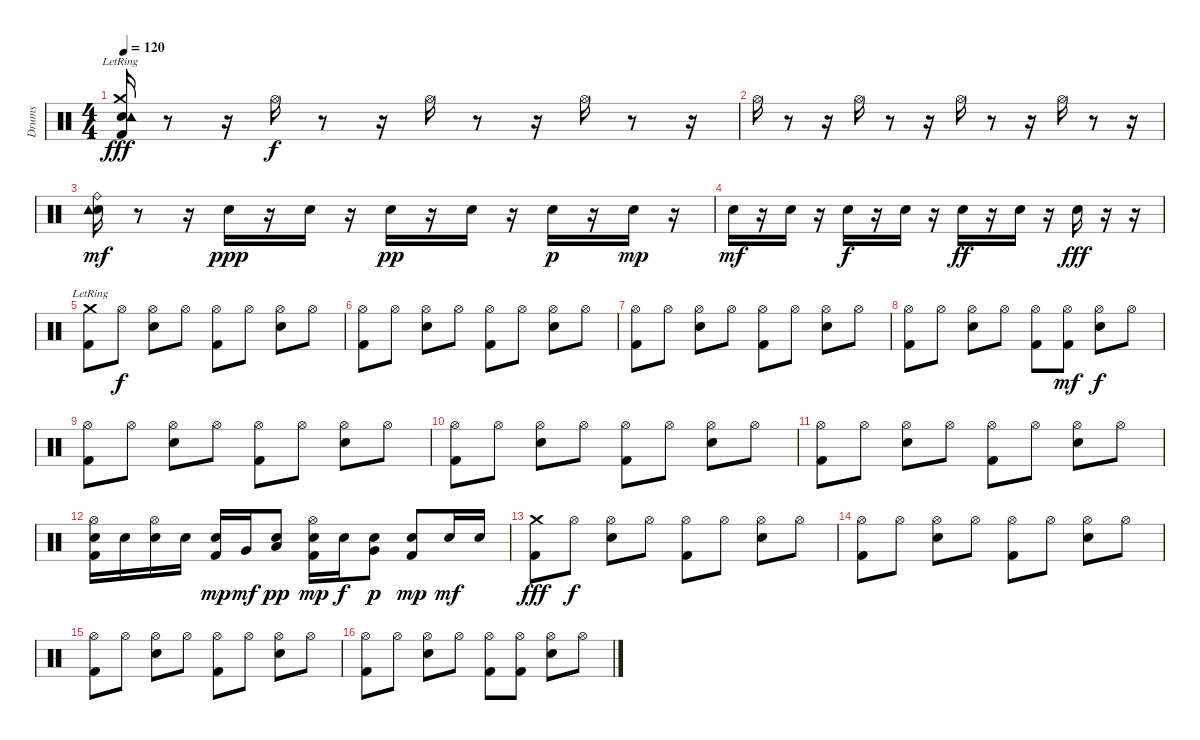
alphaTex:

\track ("Drums" "Drums") {instrument percussion}
\staff {score}
\articulation defaults
\ts (4 4)
\tempo 120
\clef neutral
\ks c
("Electric Snare (hit)" "Crash medium (hit)"{lr} "Tambourine (hit)"{lr} "Kick (hit) 2").16{dy fff} r.8 r.16 "Hi-Hat (open)".16{dy f} r.8 r.16 "Hi-Hat (open)".16 r.8 r.16 "Hi-Hat (open)".16 r.8 r.16 |
"Hi-Hat (open)".16 r.8 r.16 "Hi-Hat (open)".16 r.8 r.16 "Hi-Hat (open)".16 r.8 r.16 "Hi-Hat (open)".16 r.8 r.16 |
("Electric Snare (hit)" "Tambourine (hit)" "Ride (bell)").16{dy mf} r.8 r.16 "Electric Snare (hit)".16{dy ppp} r.16 "Electric Snare (hit)".16 r.16 "Electric Snare (hit)".16{dy pp} r.16 "Electric Snare (hit)".16 r.16 "Electric Snare (hit)".16{dy p} r.16 "Electric Snare (hit)".16{dy mp} r.16 |
"Electric Snare (hit)".16{dy mf} r.16 "Electric Snare (hit)".16 r.16 "Electric Snare (hit)".16{dy f} r.16 "Electric Snare (hit)".16 r.16 "Electric Snare (hit)".16{dy ff} r.16 "Electric Snare (hit)".16 r.16 "Electric Snare (hit)".16{dy fff} r.16 r.16 |
("Crash medium (hit)"{lr} "Kick (hit) 2").8 "Hi-Hat (open)".8{dy f} ("Hi-Hat (open)" "Electric Snare (hit)").8 "Hi-Hat (open)".8 ("Hi-Hat (open)" "Kick (hit) 2").8 "Hi-Hat (open)".8 ("Hi-Hat (open)" "Electric Snare (hit)").8 "Hi-Hat (open)".8 |
("Hi-Hat (open)" "Kick (hit) 2").8 "Hi-Hat (open)".8 ("Hi-Hat (open)" "Electric Snare (hit)").8 "Hi-Hat (open)".8 ("Hi-Hat (open)" "Kick (hit) 2").8 "Hi-Hat (open)".8 ("Hi-Hat (open)" "Electric Snare (hit)").8 "Hi-Hat (open)".8 |
("Hi-Hat (open)" "Kick (hit) 2").8 "Hi-Hat (open)".8 ("Hi-Hat (open)" "Electric Snare (hit)").8 "Hi-Hat (open)".8 ("Hi-Hat (open)" "Kick (hit) 2").8 "Hi-Hat (open)".8 ("Hi-Hat (open)" "Electric Snare (hit)").8 "Hi-Hat (open)".8 |
("Hi-Hat (open)" "Kick (hit) 2").8 "Hi-Hat (open)".8 ("Hi-Hat (open)" "Electric Snare (hit)").8 "Hi-Hat (open)".8 ("Hi-Hat (open)" "Kick (hit) 2").8 ("Hi-Hat (open)" "Kick (hit) 2").8{dy mf} ("Hi-Hat (open)" "Electric Snare (hit)").8{dy f} "Hi-Hat (open)".8 |
("Hi-Hat (open)" "Kick (hit) 2").8 "Hi-Hat (open)".8 ("Hi-Hat (open)" "Electric Snare (hit)").8 "Hi-Hat (open)".8 ("Hi-Hat (open)" "Kick (hit) 2").8 "Hi-Hat (open)".8 ("Hi-Hat (open)" "Electric Snare (hit)").8 "Hi-Hat (open)".8 |
("Hi-Hat (open)" "Kick (hit) 2").8 "Hi-Hat (open)".8 ("Hi-Hat (open)" "Electric Snare (hit)").8 "Hi-Hat (open)".8 ("Hi-Hat (open)" "Kick (hit) 2").8 "Hi-Hat (open)".8 ("Hi-Hat (open)" "Electric Snare (hit)").8 "Hi-Hat (open)".8 |
("Hi-Hat (open)" "Kick (hit) 2").8 "Hi-Hat (open)".8 ("Hi-Hat (open)" "Electric Snare (hit)").8 "Hi-Hat (open)".8 ("Hi-Hat (open)" "Kick (hit) 2").8 "Hi-Hat (open)".8 ("Hi-Hat (open)" "Electric Snare (hit)").8 "Hi-Hat (open)".8 |
("Electric Snare (hit)" "Hi-Hat (open)" "Kick (hit) 2").16 "Electric Snare (hit)".16 ("Electric Snare (hit)" "Hi-Hat (open)").16 "Electric Snare (hit)".16 ("Electric Snare (hit)" "Kick (hit) 2").16{dy mp} "Very Low Tom (hit)".16{dy mf} ("Low Tom (hit)" "Electric Snare (hit)").8{dy pp} ("Electric Snare (hit)" "Hi-Hat (open)" "Kick (hit) 2").16{dy mp} "Electric Snare (hit)".16{dy f} ("Very Low Tom (hit)" "Electric Snare (hit)").8{dy p} ("Electric Snare (hit)" "Kick (hit) 2").8{dy mp} "Electric Snare (hit)".16{dy mf} "Electric Snare (hit)".16 |
("Crash medium (hit)" "Kick (hit) 2").8{dy fff} "Hi-Hat (open)".8{dy f} ("Hi-Hat (open)" "Electric Snare (hit)").8 "Hi-Hat (open)".8 ("Hi-Hat (open)" "Kick (hit) 2").8 "Hi-Hat (open)".8 ("Hi-Hat (open)" "Electric Snare (hit)").8 "Hi-Hat (open)".8 |
("Hi-Hat (open)" "Kick (hit) 2").8 "Hi-Hat (open)".8 ("Hi-Hat (open)" "Electric Snare (hit)").8 "Hi-Hat (open)".8 ("Hi-Hat (open)" "Kick (hit) 2").8 "Hi-Hat (open)".8 ("Hi-Hat (open)" "Electric Snare (hit)").8 "Hi-Hat (open)".8 |
("Hi-Hat (open)" "Kick (hit) 2").8 "Hi-Hat (open)".8 ("Hi-Hat (open)" "Electric Snare (hit)").8 "Hi-Hat (open)".8 ("Hi-Hat (open)" "Kick (hit) 2").8 "Hi-Hat (open)".8 ("Hi-Hat (open)" "Electric Snare (hit)").8 "Hi-Hat (open)".8 |
("Hi-Hat (open)" "Kick (hit) 2").8 "Hi-Hat (open)".8 ("Hi-Hat (open)" "Electric Snare (hit)").8 "Hi-Hat (open)".8 ("Hi-Hat (open)" "Kick (hit) 2").8 ("Hi-Hat (open)" "Kick (hit) 2").8 ("Hi-Hat (open)" "Electric Snare (hit)").8 "Hi-Hat (open)".8
